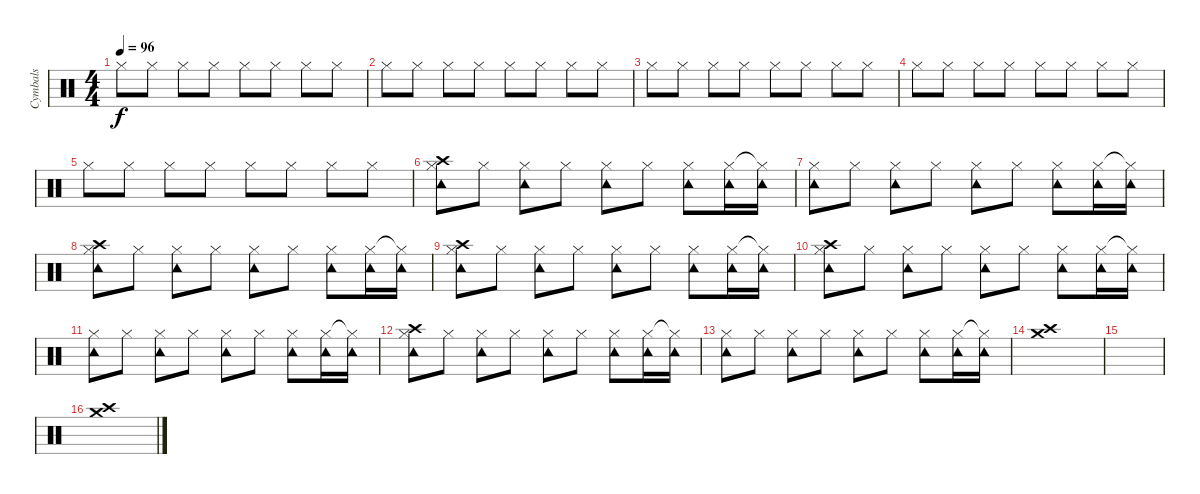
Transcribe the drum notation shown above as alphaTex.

\track ("Cymbals" "Cymbals") {instrument percussion}
\staff {score}
\articulation defaults
\ts (4 4)
\tempo 96
\clef neutral
\ks c "Hi-Hat (closed)".8{dy f} "Hi-Hat (closed)".8 "Hi-Hat (closed)".8 "Hi-Hat (closed)".8 "Hi-Hat (closed)".8 "Hi-Hat (closed)".8 "Hi-Hat (closed)".8 "Hi-Hat (closed)".8
|
"Hi-Hat (closed)".8 "Hi-Hat (closed)".8 "Hi-Hat (closed)".8 "Hi-Hat (closed)".8 "Hi-Hat (closed)".8 "Hi-Hat (closed)".8 "Hi-Hat (closed)".8 "Hi-Hat (closed)".8 |
"Hi-Hat (closed)".8 "Hi-Hat (closed)".8 "Hi-Hat (closed)".8 "Hi-Hat (closed)".8 "Hi-Hat (closed)".8 "Hi-Hat (closed)".8 "Hi-Hat (closed)".8 "Hi-Hat (closed)".8 |
"Hi-Hat (closed)".8 "Hi-Hat (closed)".8 "Hi-Hat (closed)".8 "Hi-Hat (closed)".8 "Hi-Hat (closed)".8 "Hi-Hat (closed)".8 "Hi-Hat (closed)".8 "Hi-Hat (closed)".8 |
"Hi-Hat (closed)".8 "Hi-Hat (closed)".8 "Hi-Hat (closed)".8 "Hi-Hat (closed)".8 "Hi-Hat (closed)".8 "Hi-Hat (closed)".8 "Hi-Hat (closed)".8 "Hi-Hat (closed)".8 |
("Crash high (hit)" "Tambourine (hit)" "Hi-Hat (closed)").8 "Hi-Hat (closed)".8 ("Tambourine (hit)" "Hi-Hat (closed)").8 "Hi-Hat (closed)".8 ("Tambourine (hit)" "Hi-Hat (closed)").8 "Hi-Hat (closed)".8 ("Tambourine (hit)" "Hi-Hat (closed)").8 ("Tambourine (hit)" "Hi-Hat (closed)").16 ("Tambourine (hit)" "Hi-Hat (closed)"{t}).16 |
("Tambourine (hit)" "Hi-Hat (closed)").8 "Hi-Hat (closed)".8 ("Tambourine (hit)" "Hi-Hat (closed)").8 "Hi-Hat (closed)".8 ("Tambourine (hit)" "Hi-Hat (closed)").8 "Hi-Hat (closed)".8 ("Tambourine (hit)" "Hi-Hat (closed)").8 ("Tambourine (hit)" "Hi-Hat (closed)").16 ("Tambourine (hit)" "Hi-Hat (closed)"{t}).16 |
("Crash high (hit)" "Tambourine (hit)" "Hi-Hat (closed)").8 "Hi-Hat (closed)".8 ("Tambourine (hit)" "Hi-Hat (closed)").8 "Hi-Hat (closed)".8 ("Tambourine (hit)" "Hi-Hat (closed)").8 "Hi-Hat (closed)".8 ("Tambourine (hit)" "Hi-Hat (closed)").8 ("Tambourine (hit)" "Hi-Hat (closed)").16 ("Tambourine (hit)" "Hi-Hat (closed)"{t}).16 |
("Crash high (hit)" "Tambourine (hit)" "Hi-Hat (closed)").8 "Hi-Hat (closed)".8 ("Tambourine (hit)" "Hi-Hat (closed)").8 "Hi-Hat (closed)".8 ("Tambourine (hit)" "Hi-Hat (closed)").8 "Hi-Hat (closed)".8 ("Tambourine (hit)" "Hi-Hat (closed)").8 ("Tambourine (hit)" "Hi-Hat (closed)").16 ("Tambourine (hit)" "Hi-Hat (closed)"{t}).16 |
("Crash high (hit)" "Tambourine (hit)" "Hi-Hat (closed)").8 "Hi-Hat (closed)".8 ("Tambourine (hit)" "Hi-Hat (closed)").8 "Hi-Hat (closed)".8 ("Tambourine (hit)" "Hi-Hat (closed)").8 "Hi-Hat (closed)".8 ("Tambourine (hit)" "Hi-Hat (closed)").8 ("Tambourine (hit)" "Hi-Hat (closed)").16 ("Tambourine (hit)" "Hi-Hat (closed)"{t}).16 |
("Tambourine (hit)" "Hi-Hat (closed)").8 "Hi-Hat (closed)".8 ("Tambourine (hit)" "Hi-Hat (closed)").8 "Hi-Hat (closed)".8 ("Tambourine (hit)" "Hi-Hat (closed)").8 "Hi-Hat (closed)".8 ("Tambourine (hit)" "Hi-Hat (closed)").8 ("Tambourine (hit)" "Hi-Hat (closed)").16 ("Tambourine (hit)" "Hi-Hat (closed)"{t}).16 |
("Crash high (hit)" "Tambourine (hit)" "Hi-Hat (closed)").8 "Hi-Hat (closed)".8 ("Tambourine (hit)" "Hi-Hat (closed)").8 "Hi-Hat (closed)".8 ("Tambourine (hit)" "Hi-Hat (closed)").8 "Hi-Hat (closed)".8 ("Tambourine (hit)" "Hi-Hat (closed)").8 ("Tambourine (hit)" "Hi-Hat (closed)").16 ("Tambourine (hit)" "Hi-Hat (closed)"{t}).16 |
("Tambourine (hit)" "Hi-Hat (closed)").8 "Hi-Hat (closed)".8 ("Tambourine (hit)" "Hi-Hat (closed)").8 "Hi-Hat (closed)".8 ("Tambourine (hit)" "Hi-Hat (closed)").8 "Hi-Hat (closed)".8 ("Tambourine (hit)" "Hi-Hat (closed)").8 ("Tambourine (hit)" "Hi-Hat (closed)").16 ("Tambourine (hit)" "Hi-Hat (closed)"{t}).16 |
("Crash medium (hit)" "Crash high (hit)").1 |
|
("Crash medium (hit)" "Crash high (hit)").1
